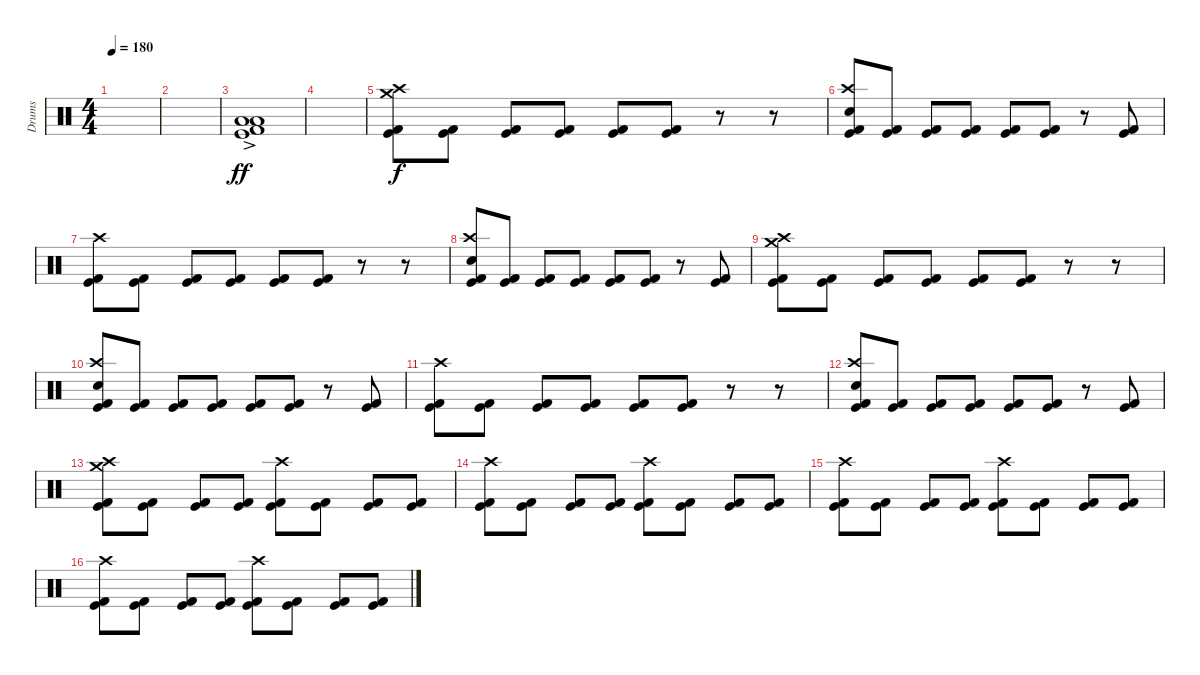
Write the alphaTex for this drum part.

\track ("Drums" "Drums") {instrument percussion}
\staff {score}
\articulation defaults
\ts (4 4)
\tempo 180
\clef neutral
\ks c
|
|
("Low Floor Tom (hit)"{ac} "Low Tom (hit)"{ac} "Kick (hit)"{ac} "Kick (hit) 2"{ac}).1{dy ff} |
|
("Crash medium (hit)" "Crash high (hit)" "Kick (hit)" "Kick (hit) 2").8{dy f} ("Kick (hit)" "Kick (hit) 2").8 ("Kick (hit)" "Kick (hit) 2").8 ("Kick (hit)" "Kick (hit) 2").8 ("Kick (hit)" "Kick (hit) 2").8 ("Kick (hit)" "Kick (hit) 2").8 r.8 r.8 |
("Crash high (hit)" "Snare (hit) 2" "Kick (hit)" "Kick (hit) 2").8 ("Kick (hit)" "Kick (hit) 2").8 ("Kick (hit)" "Kick (hit) 2").8 ("Kick (hit)" "Kick (hit) 2").8 ("Kick (hit)" "Kick (hit) 2").8 ("Kick (hit)" "Kick (hit) 2").8 r.8 ("Kick (hit)" "Kick (hit) 2").8 |
("Crash high (hit)" "Kick (hit)" "Kick (hit) 2").8 ("Kick (hit)" "Kick (hit) 2").8 ("Kick (hit)" "Kick (hit) 2").8 ("Kick (hit)" "Kick (hit) 2").8 ("Kick (hit)" "Kick (hit) 2").8 ("Kick (hit)" "Kick (hit) 2").8 r.8 r.8 |
("Crash high (hit)" "Snare (hit) 2" "Kick (hit)" "Kick (hit) 2").8 ("Kick (hit)" "Kick (hit) 2").8 ("Kick (hit)" "Kick (hit) 2").8 ("Kick (hit)" "Kick (hit) 2").8 ("Kick (hit)" "Kick (hit) 2").8 ("Kick (hit)" "Kick (hit) 2").8 r.8 ("Kick (hit)" "Kick (hit) 2").8 |
("Crash medium (hit)" "Crash high (hit)" "Kick (hit)" "Kick (hit) 2").8 ("Kick (hit)" "Kick (hit) 2").8 ("Kick (hit)" "Kick (hit) 2").8 ("Kick (hit)" "Kick (hit) 2").8 ("Kick (hit)" "Kick (hit) 2").8 ("Kick (hit)" "Kick (hit) 2").8 r.8 r.8 |
("Crash high (hit)" "Snare (hit) 2" "Kick (hit)" "Kick (hit) 2").8 ("Kick (hit)" "Kick (hit) 2").8 ("Kick (hit)" "Kick (hit) 2").8 ("Kick (hit)" "Kick (hit) 2").8 ("Kick (hit)" "Kick (hit) 2").8 ("Kick (hit)" "Kick (hit) 2").8 r.8 ("Kick (hit)" "Kick (hit) 2").8 |
("Crash high (hit)" "Kick (hit)" "Kick (hit) 2").8 ("Kick (hit)" "Kick (hit) 2").8 ("Kick (hit)" "Kick (hit) 2").8 ("Kick (hit)" "Kick (hit) 2").8 ("Kick (hit)" "Kick (hit) 2").8 ("Kick (hit)" "Kick (hit) 2").8 r.8 r.8 |
("Crash high (hit)" "Snare (hit) 2" "Kick (hit)" "Kick (hit) 2").8 ("Kick (hit)" "Kick (hit) 2").8 ("Kick (hit)" "Kick (hit) 2").8 ("Kick (hit)" "Kick (hit) 2").8 ("Kick (hit)" "Kick (hit) 2").8 ("Kick (hit)" "Kick (hit) 2").8 r.8 ("Kick (hit)" "Kick (hit) 2").8 |
("Crash medium (hit)" "Crash high (hit)" "Kick (hit)" "Kick (hit) 2").8 ("Kick (hit)" "Kick (hit) 2").8 ("Kick (hit)" "Kick (hit) 2").8 ("Kick (hit)" "Kick (hit) 2").8 ("Crash high (hit)" "Kick (hit)" "Kick (hit) 2").8 ("Kick (hit)" "Kick (hit) 2").8 ("Kick (hit)" "Kick (hit) 2").8 ("Kick (hit)" "Kick (hit) 2").8 |
("Crash high (hit)" "Kick (hit)" "Kick (hit) 2").8 ("Kick (hit)" "Kick (hit) 2").8 ("Kick (hit)" "Kick (hit) 2").8 ("Kick (hit)" "Kick (hit) 2").8 ("Crash high (hit)" "Kick (hit)" "Kick (hit) 2").8 ("Kick (hit)" "Kick (hit) 2").8 ("Kick (hit)" "Kick (hit) 2").8 ("Kick (hit)" "Kick (hit) 2").8 |
("Crash high (hit)" "Kick (hit)" "Kick (hit) 2").8 ("Kick (hit)" "Kick (hit) 2").8 ("Kick (hit)" "Kick (hit) 2").8 ("Kick (hit)" "Kick (hit) 2").8 ("Crash high (hit)" "Kick (hit)" "Kick (hit) 2").8 ("Kick (hit)" "Kick (hit) 2").8 ("Kick (hit)" "Kick (hit) 2").8 ("Kick (hit)" "Kick (hit) 2").8 |
("Crash high (hit)" "Kick (hit)" "Kick (hit) 2").8 ("Kick (hit)" "Kick (hit) 2").8 ("Kick (hit)" "Kick (hit) 2").8 ("Kick (hit)" "Kick (hit) 2").8 ("Crash high (hit)" "Kick (hit)" "Kick (hit) 2").8 ("Kick (hit)" "Kick (hit) 2").8 ("Kick (hit)" "Kick (hit) 2").8 ("Kick (hit)" "Kick (hit) 2").8
